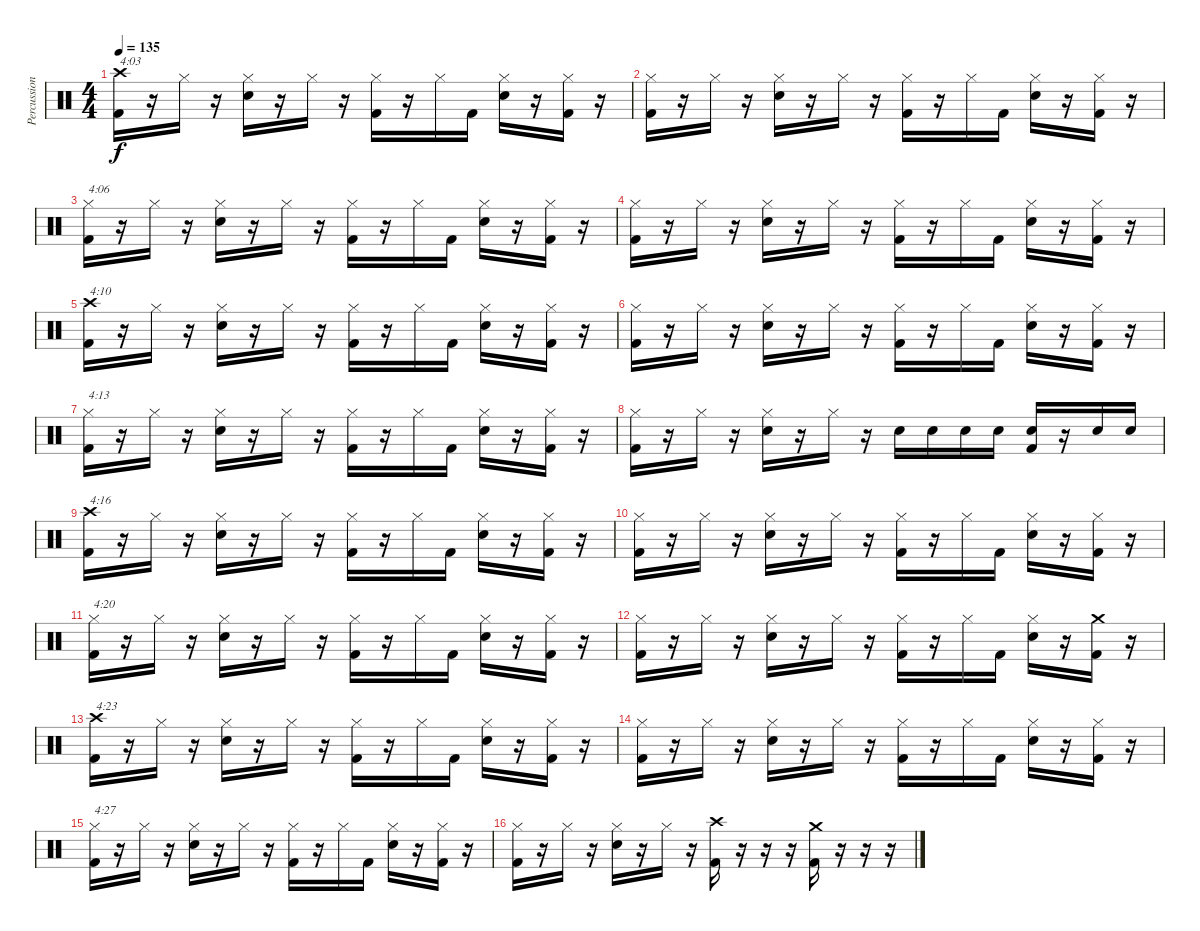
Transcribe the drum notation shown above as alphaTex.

\track ("Percussion" "Percussion") {instrument percussion}
\staff {score}
\articulation defaults
\ts (4 4)
\tempo 135
\clef neutral
\ks c
("Crash high (hit)" "Kick (hit) 2").16{txt "4:03" dy f} r.16 "Hi-Hat (closed)".16 r.16 ("Hi-Hat (closed)" "Snare (hit) 2").16 r.16 "Hi-Hat (closed)".16 r.16 ("Hi-Hat (closed)" "Kick (hit) 2").16 r.16 "Hi-Hat (closed)".16 "Kick (hit) 2".16 ("Hi-Hat (closed)" "Snare (hit) 2").16 r.16 ("Hi-Hat (closed)" "Kick (hit) 2").16 r.16 |
("Hi-Hat (closed)" "Kick (hit) 2").16 r.16 "Hi-Hat (closed)".16 r.16 ("Hi-Hat (closed)" "Snare (hit) 2").16 r.16 "Hi-Hat (closed)".16 r.16 ("Hi-Hat (closed)" "Kick (hit) 2").16 r.16 "Hi-Hat (closed)".16 "Kick (hit) 2".16 ("Hi-Hat (closed)" "Snare (hit) 2").16 r.16 ("Hi-Hat (closed)" "Kick (hit) 2").16 r.16 |
("Hi-Hat (closed)" "Kick (hit) 2").16{txt "4:06"} r.16 "Hi-Hat (closed)".16 r.16 ("Hi-Hat (closed)" "Snare (hit) 2").16 r.16 "Hi-Hat (closed)".16 r.16 ("Hi-Hat (closed)" "Kick (hit) 2").16 r.16 "Hi-Hat (closed)".16 "Kick (hit) 2".16 ("Hi-Hat (closed)" "Snare (hit) 2").16 r.16 ("Hi-Hat (closed)" "Kick (hit) 2").16 r.16 |
("Hi-Hat (closed)" "Kick (hit) 2").16 r.16 "Hi-Hat (closed)".16 r.16 ("Hi-Hat (closed)" "Snare (hit) 2").16 r.16 "Hi-Hat (closed)".16 r.16 ("Hi-Hat (closed)" "Kick (hit) 2").16 r.16 "Hi-Hat (closed)".16 "Kick (hit) 2".16 ("Hi-Hat (closed)" "Snare (hit) 2").16 r.16 ("Hi-Hat (closed)" "Kick (hit) 2").16 r.16 |
("Crash high (hit)" "Kick (hit) 2").16{txt "4:10"} r.16 "Hi-Hat (closed)".16 r.16 ("Hi-Hat (closed)" "Snare (hit) 2").16 r.16 "Hi-Hat (closed)".16 r.16 ("Hi-Hat (closed)" "Kick (hit) 2").16 r.16 "Hi-Hat (closed)".16 "Kick (hit) 2".16 ("Hi-Hat (closed)" "Snare (hit) 2").16 r.16 ("Hi-Hat (closed)" "Kick (hit) 2").16 r.16 |
("Hi-Hat (closed)" "Kick (hit) 2").16 r.16 "Hi-Hat (closed)".16 r.16 ("Hi-Hat (closed)" "Snare (hit) 2").16 r.16 "Hi-Hat (closed)".16 r.16 ("Hi-Hat (closed)" "Kick (hit) 2").16 r.16 "Hi-Hat (closed)".16 "Kick (hit) 2".16 ("Hi-Hat (closed)" "Snare (hit) 2").16 r.16 ("Hi-Hat (closed)" "Kick (hit) 2").16 r.16 |
("Hi-Hat (closed)" "Kick (hit) 2").16{txt "4:13"} r.16 "Hi-Hat (closed)".16 r.16 ("Hi-Hat (closed)" "Snare (hit) 2").16 r.16 "Hi-Hat (closed)".16 r.16 ("Hi-Hat (closed)" "Kick (hit) 2").16 r.16 "Hi-Hat (closed)".16 "Kick (hit) 2".16 ("Hi-Hat (closed)" "Snare (hit) 2").16 r.16 ("Hi-Hat (closed)" "Kick (hit) 2").16 r.16 |
("Hi-Hat (closed)" "Kick (hit) 2").16 r.16 "Hi-Hat (closed)".16 r.16 ("Hi-Hat (closed)" "Snare (hit) 2").16 r.16 "Hi-Hat (closed)".16 r.16 "Snare (hit) 2".16 "Snare (hit) 2".16 "Snare (hit) 2".16 "Snare (hit) 2".16 ("Snare (hit) 2" "Kick (hit) 2").16 r.16 "Snare (hit) 2".16 "Snare (hit) 2".16 |
("Crash high (hit)" "Kick (hit) 2").16{txt "4:16"} r.16 "Hi-Hat (closed)".16 r.16 ("Hi-Hat (closed)" "Snare (hit) 2").16 r.16 "Hi-Hat (closed)".16 r.16 ("Hi-Hat (closed)" "Kick (hit) 2").16 r.16 "Hi-Hat (closed)".16 "Kick (hit) 2".16 ("Hi-Hat (closed)" "Snare (hit) 2").16 r.16 ("Hi-Hat (closed)" "Kick (hit) 2").16 r.16 |
("Hi-Hat (closed)" "Kick (hit) 2").16 r.16 "Hi-Hat (closed)".16 r.16 ("Hi-Hat (closed)" "Snare (hit) 2").16 r.16 "Hi-Hat (closed)".16 r.16 ("Hi-Hat (closed)" "Kick (hit) 2").16 r.16 "Hi-Hat (closed)".16 "Kick (hit) 2".16 ("Hi-Hat (closed)" "Snare (hit) 2").16 r.16 ("Hi-Hat (closed)" "Kick (hit) 2").16 r.16 |
("Hi-Hat (closed)" "Kick (hit) 2").16{txt "4:20"} r.16 "Hi-Hat (closed)".16 r.16 ("Hi-Hat (closed)" "Snare (hit) 2").16 r.16 "Hi-Hat (closed)".16 r.16 ("Hi-Hat (closed)" "Kick (hit) 2").16 r.16 "Hi-Hat (closed)".16 "Kick (hit) 2".16 ("Hi-Hat (closed)" "Snare (hit) 2").16 r.16 ("Hi-Hat (closed)" "Kick (hit) 2").16 r.16 |
("Hi-Hat (closed)" "Kick (hit) 2").16 r.16 "Hi-Hat (closed)".16 r.16 ("Hi-Hat (closed)" "Snare (hit) 2").16 r.16 "Hi-Hat (closed)".16 r.16 ("Hi-Hat (closed)" "Kick (hit) 2").16 r.16 "Hi-Hat (closed)".16 "Kick (hit) 2".16 ("Hi-Hat (closed)" "Snare (hit) 2").16 r.16 ("Crash medium (hit)" "Kick (hit) 2").16 r.16 |
("Crash high (hit)" "Kick (hit) 2").16{txt "4:23"} r.16 "Hi-Hat (closed)".16 r.16 ("Hi-Hat (closed)" "Snare (hit) 2").16 r.16 "Hi-Hat (closed)".16 r.16 ("Hi-Hat (closed)" "Kick (hit) 2").16 r.16 "Hi-Hat (closed)".16 "Kick (hit) 2".16 ("Hi-Hat (closed)" "Snare (hit) 2").16 r.16 ("Hi-Hat (closed)" "Kick (hit) 2").16 r.16 |
("Hi-Hat (closed)" "Kick (hit) 2").16 r.16 "Hi-Hat (closed)".16 r.16 ("Hi-Hat (closed)" "Snare (hit) 2").16 r.16 "Hi-Hat (closed)".16 r.16 ("Hi-Hat (closed)" "Kick (hit) 2").16 r.16 "Hi-Hat (closed)".16 "Kick (hit) 2".16 ("Hi-Hat (closed)" "Snare (hit) 2").16 r.16 ("Hi-Hat (closed)" "Kick (hit) 2").16 r.16 |
("Hi-Hat (closed)" "Kick (hit) 2").16{txt "4:27"} r.16 "Hi-Hat (closed)".16 r.16 ("Hi-Hat (closed)" "Snare (hit) 2").16 r.16 "Hi-Hat (closed)".16 r.16 ("Hi-Hat (closed)" "Kick (hit) 2").16 r.16 "Hi-Hat (closed)".16 "Kick (hit) 2".16 ("Hi-Hat (closed)" "Snare (hit) 2").16 r.16 ("Hi-Hat (closed)" "Kick (hit) 2").16 r.16 |
("Hi-Hat (closed)" "Kick (hit) 2").16 r.16 "Hi-Hat (closed)".16 r.16 ("Hi-Hat (closed)" "Snare (hit) 2").16 r.16 "Hi-Hat (closed)".16 r.16 ("Crash high (hit)" "Kick (hit) 2").16 r.16 r.16 r.16 ("Crash medium (hit)" "Kick (hit) 2").16 r.16 r.16 r.16
